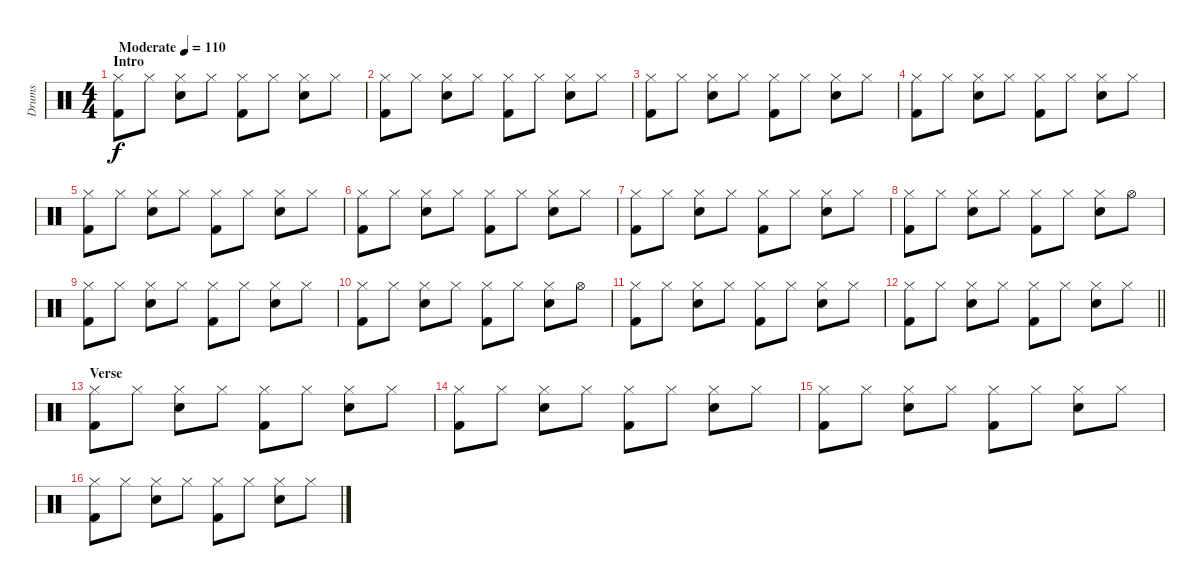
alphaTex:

\track ("Drums" "Drums") {instrument percussion}
\staff {score}
\articulation defaults
\ts (4 4)
\section ("" "Intro")
\tempo (110 "Moderate")
\clef neutral
\ks c
("Hi-Hat (closed)" "Kick (hit) 2").8{dy f} "Hi-Hat (closed)".8 ("Hi-Hat (closed)" "Electric Snare (hit)").8 "Hi-Hat (closed)".8 ("Hi-Hat (closed)" "Kick (hit) 2").8 "Hi-Hat (closed)".8 ("Hi-Hat (closed)" "Electric Snare (hit)").8 "Hi-Hat (closed)".8 |
("Hi-Hat (closed)" "Kick (hit) 2").8 "Hi-Hat (closed)".8 ("Hi-Hat (closed)" "Electric Snare (hit)").8 "Hi-Hat (closed)".8 ("Hi-Hat (closed)" "Kick (hit) 2").8 "Hi-Hat (closed)".8 ("Hi-Hat (closed)" "Electric Snare (hit)").8 "Hi-Hat (closed)".8 |
("Hi-Hat (closed)" "Kick (hit) 2").8 "Hi-Hat (closed)".8 ("Hi-Hat (closed)" "Electric Snare (hit)").8 "Hi-Hat (closed)".8 ("Hi-Hat (closed)" "Kick (hit) 2").8 "Hi-Hat (closed)".8 ("Hi-Hat (closed)" "Electric Snare (hit)").8 "Hi-Hat (closed)".8 |
("Hi-Hat (closed)" "Kick (hit) 2").8 "Hi-Hat (closed)".8 ("Hi-Hat (closed)" "Electric Snare (hit)").8 "Hi-Hat (closed)".8 ("Hi-Hat (closed)" "Kick (hit) 2").8 "Hi-Hat (closed)".8 ("Hi-Hat (closed)" "Electric Snare (hit)").8 "Hi-Hat (closed)".8 |
("Hi-Hat (closed)" "Kick (hit) 2").8 "Hi-Hat (closed)".8 ("Hi-Hat (closed)" "Electric Snare (hit)").8 "Hi-Hat (closed)".8 ("Hi-Hat (closed)" "Kick (hit) 2").8 "Hi-Hat (closed)".8 ("Hi-Hat (closed)" "Electric Snare (hit)").8 "Hi-Hat (closed)".8 |
("Hi-Hat (closed)" "Kick (hit) 2").8 "Hi-Hat (closed)".8 ("Hi-Hat (closed)" "Electric Snare (hit)").8 "Hi-Hat (closed)".8 ("Hi-Hat (closed)" "Kick (hit) 2").8 "Hi-Hat (closed)".8 ("Hi-Hat (closed)" "Electric Snare (hit)").8 "Hi-Hat (closed)".8 |
("Hi-Hat (closed)" "Kick (hit) 2").8 "Hi-Hat (closed)".8 ("Hi-Hat (closed)" "Electric Snare (hit)").8 "Hi-Hat (closed)".8 ("Hi-Hat (closed)" "Kick (hit) 2").8 "Hi-Hat (closed)".8 ("Hi-Hat (closed)" "Electric Snare (hit)").8 "Hi-Hat (closed)".8 |
("Hi-Hat (closed)" "Kick (hit) 2").8 "Hi-Hat (closed)".8 ("Hi-Hat (closed)" "Electric Snare (hit)").8 "Hi-Hat (closed)".8 ("Hi-Hat (closed)" "Kick (hit) 2").8 "Hi-Hat (closed)".8 ("Hi-Hat (closed)" "Electric Snare (hit)").8 "Hi-Hat (open)".8 |
("Hi-Hat (closed)" "Kick (hit) 2").8 "Hi-Hat (closed)".8 ("Hi-Hat (closed)" "Electric Snare (hit)").8 "Hi-Hat (closed)".8 ("Hi-Hat (closed)" "Kick (hit) 2").8 "Hi-Hat (closed)".8 ("Hi-Hat (closed)" "Electric Snare (hit)").8 "Hi-Hat (closed)".8 |
("Hi-Hat (closed)" "Kick (hit) 2").8 "Hi-Hat (closed)".8 ("Hi-Hat (closed)" "Electric Snare (hit)").8 "Hi-Hat (closed)".8 ("Hi-Hat (closed)" "Kick (hit) 2").8 "Hi-Hat (closed)".8 ("Hi-Hat (closed)" "Electric Snare (hit)").8 "Hi-Hat (open)".8 |
("Hi-Hat (closed)" "Kick (hit) 2").8 "Hi-Hat (closed)".8 ("Hi-Hat (closed)" "Electric Snare (hit)").8 "Hi-Hat (closed)".8 ("Hi-Hat (closed)" "Kick (hit) 2").8 "Hi-Hat (closed)".8 ("Hi-Hat (closed)" "Electric Snare (hit)").8 "Hi-Hat (closed)".8 |
\barLineRight lightlight
("Hi-Hat (closed)" "Kick (hit) 2").8 "Hi-Hat (closed)".8 ("Hi-Hat (closed)" "Electric Snare (hit)").8 "Hi-Hat (closed)".8 ("Hi-Hat (closed)" "Kick (hit) 2").8 "Hi-Hat (closed)".8 ("Hi-Hat (closed)" "Electric Snare (hit)").8 "Hi-Hat (closed)".8 |
\section ("" "Verse")
("Hi-Hat (closed)" "Kick (hit) 2").8 "Hi-Hat (closed)".8 ("Hi-Hat (closed)" "Electric Snare (hit)").8 "Hi-Hat (closed)".8 ("Hi-Hat (closed)" "Kick (hit) 2").8 "Hi-Hat (closed)".8 ("Hi-Hat (closed)" "Electric Snare (hit)").8 "Hi-Hat (closed)".8 |
("Hi-Hat (closed)" "Kick (hit) 2").8 "Hi-Hat (closed)".8 ("Hi-Hat (closed)" "Electric Snare (hit)").8 "Hi-Hat (closed)".8 ("Hi-Hat (closed)" "Kick (hit) 2").8 "Hi-Hat (closed)".8 ("Hi-Hat (closed)" "Electric Snare (hit)").8 "Hi-Hat (closed)".8 |
("Hi-Hat (closed)" "Kick (hit) 2").8 "Hi-Hat (closed)".8 ("Hi-Hat (closed)" "Electric Snare (hit)").8 "Hi-Hat (closed)".8 ("Hi-Hat (closed)" "Kick (hit) 2").8 "Hi-Hat (closed)".8 ("Hi-Hat (closed)" "Electric Snare (hit)").8 "Hi-Hat (closed)".8 |
("Hi-Hat (closed)" "Kick (hit) 2").8 "Hi-Hat (closed)".8 ("Hi-Hat (closed)" "Electric Snare (hit)").8 "Hi-Hat (closed)".8 ("Hi-Hat (closed)" "Kick (hit) 2").8 "Hi-Hat (closed)".8 ("Hi-Hat (closed)" "Electric Snare (hit)").8 "Hi-Hat (closed)".8
